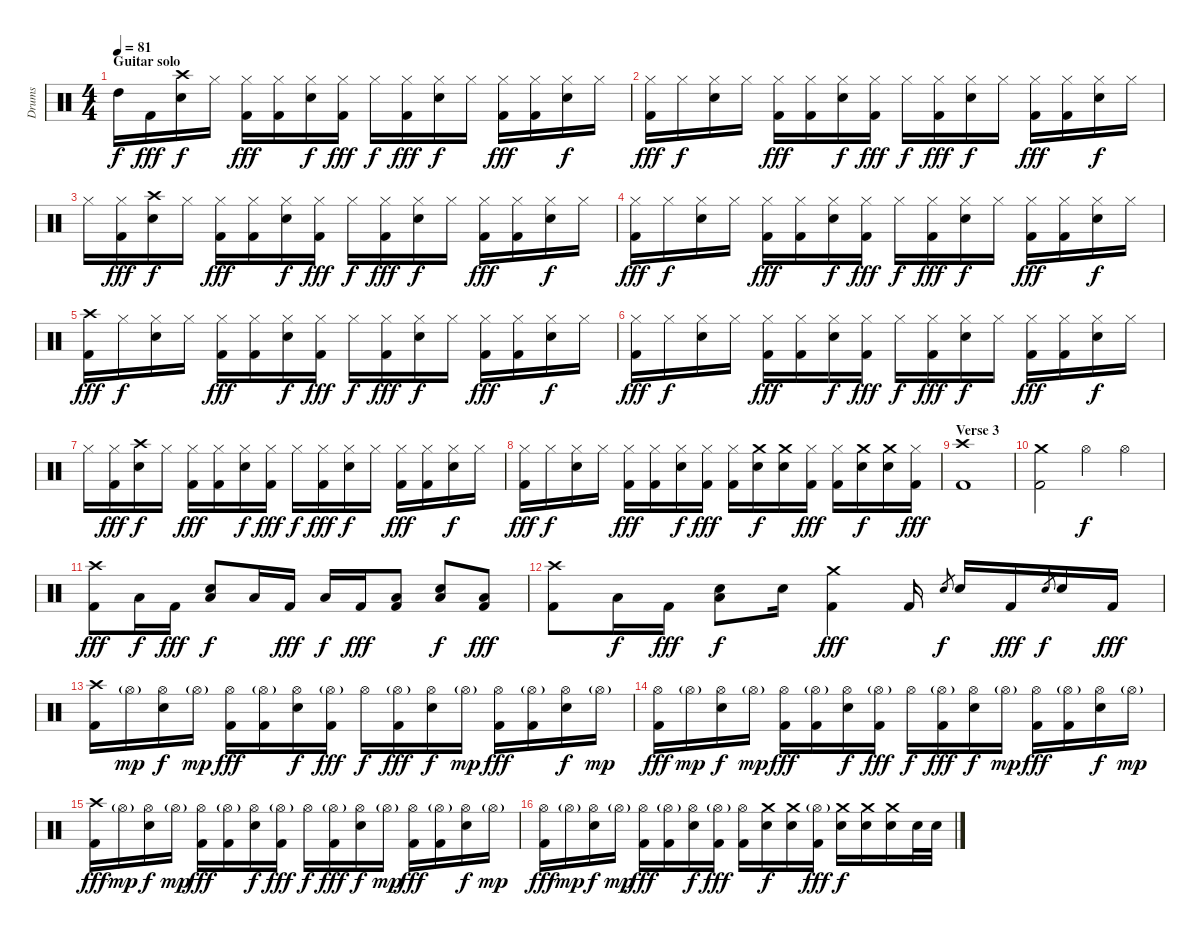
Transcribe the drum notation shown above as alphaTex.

\track ("Drums" "Drums") {instrument percussion}
\staff {score}
\articulation defaults
\ts (4 4)
\section ("" "Guitar solo")
\tempo 81
\clef neutral
\ks c "High Tom (hit)".16{dy f} "Kick (hit) 2".16{dy fff}
("Crash high (hit)" "Snare (hit) 2").16{dy f} "Hi-Hat (closed)".16 ("Hi-Hat (closed)" "Kick (hit) 2").16{dy fff} ("Hi-Hat (closed)" "Kick (hit) 2").16 ("Hi-Hat (closed)" "Snare (hit) 2").16{dy f} ("Hi-Hat (closed)" "Kick (hit) 2").16{dy fff} "Hi-Hat (closed)".16{dy f} ("Hi-Hat (closed)" "Kick (hit) 2").16{dy fff} ("Hi-Hat (closed)" "Snare (hit) 2").16{dy f} "Hi-Hat (closed)".16 ("Hi-Hat (closed)" "Kick (hit) 2").16{dy fff} ("Hi-Hat (closed)" "Kick (hit) 2").16 ("Hi-Hat (closed)" "Snare (hit) 2").16{dy f} "Hi-Hat (closed)".16 |
("Hi-Hat (closed)" "Kick (hit) 2").16{dy fff} "Hi-Hat (closed)".16{dy f} ("Hi-Hat (closed)" "Snare (hit) 2").16 "Hi-Hat (closed)".16 ("Hi-Hat (closed)" "Kick (hit) 2").16{dy fff} ("Hi-Hat (closed)" "Kick (hit) 2").16 ("Hi-Hat (closed)" "Snare (hit) 2").16{dy f} ("Hi-Hat (closed)" "Kick (hit) 2").16{dy fff} "Hi-Hat (closed)".16{dy f} ("Hi-Hat (closed)" "Kick (hit) 2").16{dy fff} ("Hi-Hat (closed)" "Snare (hit) 2").16{dy f} "Hi-Hat (closed)".16 ("Hi-Hat (closed)" "Kick (hit) 2").16{dy fff} ("Hi-Hat (closed)" "Kick (hit) 2").16 ("Hi-Hat (closed)" "Snare (hit) 2").16{dy f} "Hi-Hat (closed)".16 |
"Hi-Hat (closed)".16 ("Hi-Hat (closed)" "Kick (hit) 2").16{dy fff} ("Crash high (hit)" "Snare (hit) 2").16{dy f} "Hi-Hat (closed)".16 ("Hi-Hat (closed)" "Kick (hit) 2").16{dy fff} ("Hi-Hat (closed)" "Kick (hit) 2").16 ("Hi-Hat (closed)" "Snare (hit) 2").16{dy f} ("Hi-Hat (closed)" "Kick (hit) 2").16{dy fff} "Hi-Hat (closed)".16{dy f} ("Hi-Hat (closed)" "Kick (hit) 2").16{dy fff} ("Hi-Hat (closed)" "Snare (hit) 2").16{dy f} "Hi-Hat (closed)".16 ("Hi-Hat (closed)" "Kick (hit) 2").16{dy fff} ("Hi-Hat (closed)" "Kick (hit) 2").16 ("Hi-Hat (closed)" "Snare (hit) 2").16{dy f} "Hi-Hat (closed)".16 |
("Hi-Hat (closed)" "Kick (hit) 2").16{dy fff} "Hi-Hat (closed)".16{dy f} ("Hi-Hat (closed)" "Snare (hit) 2").16 "Hi-Hat (closed)".16 ("Hi-Hat (closed)" "Kick (hit) 2").16{dy fff} ("Hi-Hat (closed)" "Kick (hit) 2").16 ("Hi-Hat (closed)" "Snare (hit) 2").16{dy f} ("Hi-Hat (closed)" "Kick (hit) 2").16{dy fff} "Hi-Hat (closed)".16{dy f} ("Hi-Hat (closed)" "Kick (hit) 2").16{dy fff} ("Hi-Hat (closed)" "Snare (hit) 2").16{dy f} "Hi-Hat (closed)".16 ("Hi-Hat (closed)" "Kick (hit) 2").16{dy fff} ("Hi-Hat (closed)" "Kick (hit) 2").16 ("Hi-Hat (closed)" "Snare (hit) 2").16{dy f} "Hi-Hat (closed)".16 |
("Crash high (hit)" "Kick (hit) 2").16{dy fff} "Hi-Hat (closed)".16{dy f} ("Hi-Hat (closed)" "Snare (hit) 2").16 "Hi-Hat (closed)".16 ("Hi-Hat (closed)" "Kick (hit) 2").16{dy fff} ("Hi-Hat (closed)" "Kick (hit) 2").16 ("Hi-Hat (closed)" "Snare (hit) 2").16{dy f} ("Hi-Hat (closed)" "Kick (hit) 2").16{dy fff} "Hi-Hat (closed)".16{dy f} ("Hi-Hat (closed)" "Kick (hit) 2").16{dy fff} ("Hi-Hat (closed)" "Snare (hit) 2").16{dy f} "Hi-Hat (closed)".16 ("Hi-Hat (closed)" "Kick (hit) 2").16{dy fff} ("Hi-Hat (closed)" "Kick (hit) 2").16 ("Hi-Hat (closed)" "Snare (hit) 2").16{dy f} "Hi-Hat (closed)".16 |
("Hi-Hat (closed)" "Kick (hit) 2").16{dy fff} "Hi-Hat (closed)".16{dy f} ("Hi-Hat (closed)" "Snare (hit) 2").16 "Hi-Hat (closed)".16 ("Hi-Hat (closed)" "Kick (hit) 2").16{dy fff} ("Hi-Hat (closed)" "Kick (hit) 2").16 ("Hi-Hat (closed)" "Snare (hit) 2").16{dy f} ("Hi-Hat (closed)" "Kick (hit) 2").16{dy fff} "Hi-Hat (closed)".16{dy f} ("Hi-Hat (closed)" "Kick (hit) 2").16{dy fff} ("Hi-Hat (closed)" "Snare (hit) 2").16{dy f} "Hi-Hat (closed)".16 ("Hi-Hat (closed)" "Kick (hit) 2").16{dy fff} ("Hi-Hat (closed)" "Kick (hit) 2").16 ("Hi-Hat (closed)" "Snare (hit) 2").16{dy f} "Hi-Hat (closed)".16 |
"Hi-Hat (closed)".16 ("Hi-Hat (closed)" "Kick (hit) 2").16{dy fff} ("Crash high (hit)" "Snare (hit) 2").16{dy f} "Hi-Hat (closed)".16 ("Hi-Hat (closed)" "Kick (hit) 2").16{dy fff} ("Hi-Hat (closed)" "Kick (hit) 2").16 ("Hi-Hat (closed)" "Snare (hit) 2").16{dy f} ("Hi-Hat (closed)" "Kick (hit) 2").16{dy fff} "Hi-Hat (closed)".16{dy f} ("Hi-Hat (closed)" "Kick (hit) 2").16{dy fff} ("Hi-Hat (closed)" "Snare (hit) 2").16{dy f} "Hi-Hat (closed)".16 ("Hi-Hat (closed)" "Kick (hit) 2").16{dy fff} ("Hi-Hat (closed)" "Kick (hit) 2").16 ("Hi-Hat (closed)" "Snare (hit) 2").16{dy f} "Hi-Hat (closed)".16 |
("Hi-Hat (closed)" "Kick (hit) 2").16{dy fff} "Hi-Hat (closed)".16{dy f} ("Hi-Hat (closed)" "Snare (hit) 2").16 "Hi-Hat (closed)".16 ("Hi-Hat (closed)" "Kick (hit) 2").16{dy fff} ("Hi-Hat (closed)" "Kick (hit) 2").16 ("Hi-Hat (closed)" "Snare (hit) 2").16{dy f} ("Hi-Hat (closed)" "Kick (hit) 2").16{dy fff} ("Hi-Hat (closed)" "Kick (hit) 2").16 ("Crash medium (hit)" "Snare (hit) 2").16{dy f} ("Crash medium (hit)" "Snare (hit) 2").16 ("Hi-Hat (closed)" "Kick (hit) 2").16{dy fff} ("Hi-Hat (closed)" "Kick (hit) 2").16 ("Crash medium (hit)" "Snare (hit) 2").16{dy f} ("Crash medium (hit)" "Snare (hit) 2").16 ("Hi-Hat (closed)" "Kick (hit) 2").16{dy fff} |
\section ("" "Verse 3")
("Crash high (hit)" "Kick (hit) 2").1 |
("Crash medium (hit)" "Kick (hit) 2").2 "Hi-Hat (open)".4{dy f} "Hi-Hat (open)".4 |
("Crash high (hit)" "Kick (hit) 2").8{dy fff} "Low Floor Tom (hit)".16{dy f} "Kick (hit) 2".16{dy fff} ("Snare (hit) 2" "Low Floor Tom (hit)").8{dy f} "Low Floor Tom (hit)".16 "Kick (hit) 2".16{dy fff} "Low Floor Tom (hit)".16{dy f} "Kick (hit) 2".16{dy fff} ("Low Floor Tom (hit)" "Kick (hit) 2").8 ("Snare (hit) 2" "Low Floor Tom (hit)").8{dy f} ("Low Floor Tom (hit)" "Kick (hit) 2").8{dy fff} |
("Crash high (hit)" "Kick (hit) 2").8 "Low Floor Tom (hit)".16{dy f} "Kick (hit) 2".16{dy fff} ("Snare (hit) 2" "Low Floor Tom (hit)").8{dy f} "Snare (hit) 2".16 ("Crash medium (hit)" "Kick (hit) 2").4{dy fff} "Kick (hit) 2".16 "Snare (hit) 2".8{gr dy f} "Snare (hit) 2".16 "Kick (hit) 2".16{dy fff} "Snare (hit) 2".8{gr dy f} "Snare (hit) 2".16 "Kick (hit) 2".16{dy fff} |
("Crash high (hit)" "Kick (hit) 2").16 "Hi-Hat (open)"{g}.16{dy mp} ("Hi-Hat (open)" "Snare (hit) 2").16{dy f} "Hi-Hat (open)"{g}.16{dy mp} ("Hi-Hat (open)" "Kick (hit) 2").16{dy fff} ("Hi-Hat (open)"{g} "Kick (hit) 2").16 ("Hi-Hat (open)" "Snare (hit) 2").16{dy f} ("Hi-Hat (open)"{g} "Kick (hit) 2").16{dy fff} "Hi-Hat (open)".16{dy f} ("Hi-Hat (open)"{g} "Kick (hit) 2").16{dy fff} ("Hi-Hat (open)" "Snare (hit) 2").16{dy f} "Hi-Hat (open)"{g}.16{dy mp} ("Hi-Hat (open)" "Kick (hit) 2").16{dy fff} ("Hi-Hat (open)"{g} "Kick (hit) 2").16 ("Hi-Hat (open)" "Snare (hit) 2").16{dy f} "Hi-Hat (open)"{g}.16{dy mp} |
("Hi-Hat (open)" "Kick (hit) 2").16{dy fff} "Hi-Hat (open)"{g}.16{dy mp} ("Hi-Hat (open)" "Snare (hit) 2").16{dy f} "Hi-Hat (open)"{g}.16{dy mp} ("Hi-Hat (open)" "Kick (hit) 2").16{dy fff} ("Hi-Hat (open)"{g} "Kick (hit) 2").16 ("Hi-Hat (open)" "Snare (hit) 2").16{dy f} ("Hi-Hat (open)"{g} "Kick (hit) 2").16{dy fff} "Hi-Hat (open)".16{dy f} ("Hi-Hat (open)"{g} "Kick (hit) 2").16{dy fff} ("Hi-Hat (open)" "Snare (hit) 2").16{dy f} "Hi-Hat (open)"{g}.16{dy mp} ("Hi-Hat (open)" "Kick (hit) 2").16{dy fff} ("Hi-Hat (open)"{g} "Kick (hit) 2").16 ("Hi-Hat (open)" "Snare (hit) 2").16{dy f} "Hi-Hat (open)"{g}.16{dy mp} |
("Crash high (hit)" "Kick (hit) 2").16{dy fff} "Hi-Hat (open)"{g}.16{dy mp} ("Hi-Hat (open)" "Snare (hit) 2").16{dy f} "Hi-Hat (open)"{g}.16{dy mp} ("Hi-Hat (open)" "Kick (hit) 2").16{dy fff} ("Hi-Hat (open)"{g} "Kick (hit) 2").16 ("Hi-Hat (open)" "Snare (hit) 2").16{dy f} ("Hi-Hat (open)"{g} "Kick (hit) 2").16{dy fff} "Hi-Hat (open)".16{dy f} ("Hi-Hat (open)"{g} "Kick (hit) 2").16{dy fff} ("Hi-Hat (open)" "Snare (hit) 2").16{dy f} "Hi-Hat (open)"{g}.16{dy mp} ("Hi-Hat (open)" "Kick (hit) 2").16{dy fff} ("Hi-Hat (open)"{g} "Kick (hit) 2").16 ("Hi-Hat (open)" "Snare (hit) 2").16{dy f} "Hi-Hat (open)"{g}.16{dy mp} |
("Hi-Hat (open)" "Kick (hit) 2").16{dy fff} "Hi-Hat (open)"{g}.16{dy mp} ("Hi-Hat (open)" "Snare (hit) 2").16{dy f} "Hi-Hat (open)"{g}.16{dy mp} ("Hi-Hat (open)" "Kick (hit) 2").16{dy fff} ("Hi-Hat (open)"{g} "Kick (hit) 2").16 ("Hi-Hat (open)" "Snare (hit) 2").16{dy f} ("Hi-Hat (open)"{g} "Kick (hit) 2").16{dy fff} ("Hi-Hat (open)" "Kick (hit) 2").16 ("Crash medium (hit)" "Snare (hit) 2").16{dy f} ("Crash medium (hit)" "Snare (hit) 2").16 ("Hi-Hat (open)"{g} "Kick (hit) 2").16{dy fff} ("Crash medium (hit)" "Snare (hit) 2").16{dy f} ("Crash medium (hit)" "Snare (hit) 2").16 ("Crash medium (hit)" "Snare (hit) 2").16 "Snare (hit) 2".32 "Snare (hit) 2".32
